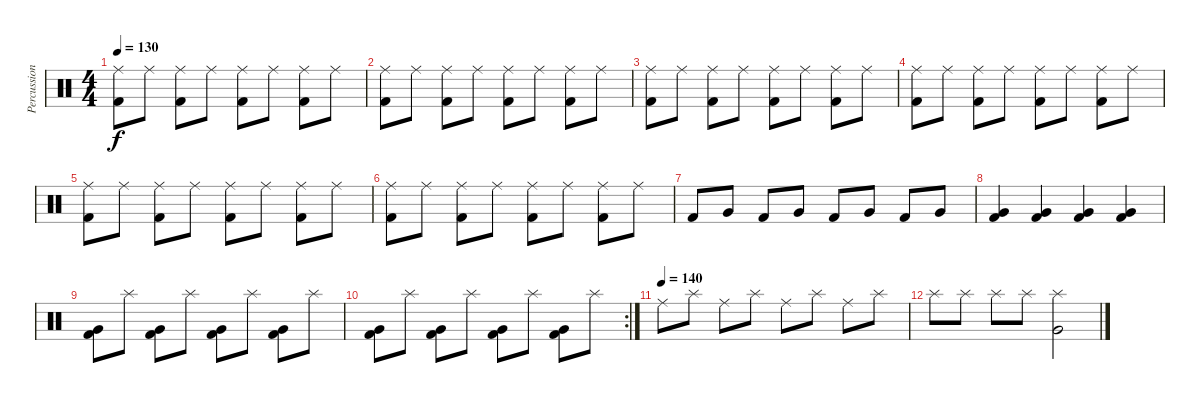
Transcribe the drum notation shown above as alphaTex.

\track ("Percussion" "Percussion") {instrument percussion}
\staff {score}
\articulation defaults
\ts (4 4)
\tempo 130
\clef neutral
\ks c
("Ride (middle)" "Kick (hit) 2").8{dy f} "Ride (middle)".8 ("Ride (middle)" "Kick (hit) 2").8 "Ride (middle)".8 ("Ride (middle)" "Kick (hit) 2").8 "Ride (middle)".8 ("Ride (middle)" "Kick (hit) 2").8 "Ride (middle)".8 |
("Ride (middle)" "Kick (hit) 2").8 "Ride (middle)".8 ("Ride (middle)" "Kick (hit) 2").8 "Ride (middle)".8 ("Ride (middle)" "Kick (hit) 2").8 "Ride (middle)".8 ("Ride (middle)" "Kick (hit) 2").8 "Ride (middle)".8 |
("Ride (middle)" "Kick (hit) 2").8 "Ride (middle)".8 ("Ride (middle)" "Kick (hit) 2").8 "Ride (middle)".8 ("Ride (middle)" "Kick (hit) 2").8 "Ride (middle)".8 ("Ride (middle)" "Kick (hit) 2").8 "Ride (middle)".8 |
("Ride (middle)" "Kick (hit) 2").8 "Ride (middle)".8 ("Ride (middle)" "Kick (hit) 2").8 "Ride (middle)".8 ("Ride (middle)" "Kick (hit) 2").8 "Ride (middle)".8 ("Ride (middle)" "Kick (hit) 2").8 "Ride (middle)".8 |
("Ride (middle)" "Kick (hit) 2").8 "Ride (middle)".8 ("Ride (middle)" "Kick (hit) 2").8 "Ride (middle)".8 ("Ride (middle)" "Kick (hit) 2").8 "Ride (middle)".8 ("Ride (middle)" "Kick (hit) 2").8 "Ride (middle)".8 |
("Ride (middle)" "Kick (hit) 2").8 "Ride (middle)".8 ("Ride (middle)" "Kick (hit) 2").8 "Ride (middle)".8 ("Ride (middle)" "Kick (hit) 2").8 "Ride (middle)".8 ("Ride (middle)" "Kick (hit) 2").8 "Ride (middle)".8 |
"Kick (hit) 2".8 "Very Low Tom (hit)".8 "Kick (hit) 2".8 "Very Low Tom (hit)".8 "Kick (hit) 2".8 "Very Low Tom (hit)".8 "Kick (hit) 2".8 "Very Low Tom (hit)".8 |
("Very Low Tom (hit)" "Kick (hit) 2").4 ("Very Low Tom (hit)" "Kick (hit) 2").4 ("Very Low Tom (hit)" "Kick (hit) 2").4 ("Very Low Tom (hit)" "Kick (hit) 2").4 |
("Very Low Tom (hit)" "Kick (hit) 2").8 "Splash (hit)".8 ("Very Low Tom (hit)" "Kick (hit) 2").8 "Splash (hit)".8 ("Very Low Tom (hit)" "Kick (hit) 2").8 "Splash (hit)".8 ("Very Low Tom (hit)" "Kick (hit) 2").8 "Splash (hit)".8 |
\rc 2
("Very Low Tom (hit)" "Kick (hit) 2").8 "Splash (hit)".8 ("Very Low Tom (hit)" "Kick (hit) 2").8 "Splash (hit)".8 ("Very Low Tom (hit)" "Kick (hit) 2").8 "Splash (hit)".8 ("Very Low Tom (hit)" "Kick (hit) 2").8 "Splash (hit)".8 |
\tempo (140)
"Ride (middle)".8 "Splash (hit)".8 "Ride (middle)".8 "Splash (hit)".8 "Ride (middle)".8 "Splash (hit)".8 "Ride (middle)".8 "Splash (hit)".8 |
"Splash (hit)".8 "Splash (hit)".8 "Splash (hit)".8 "Splash (hit)".8 ("Splash (hit)" "Very Low Tom (hit)").2
